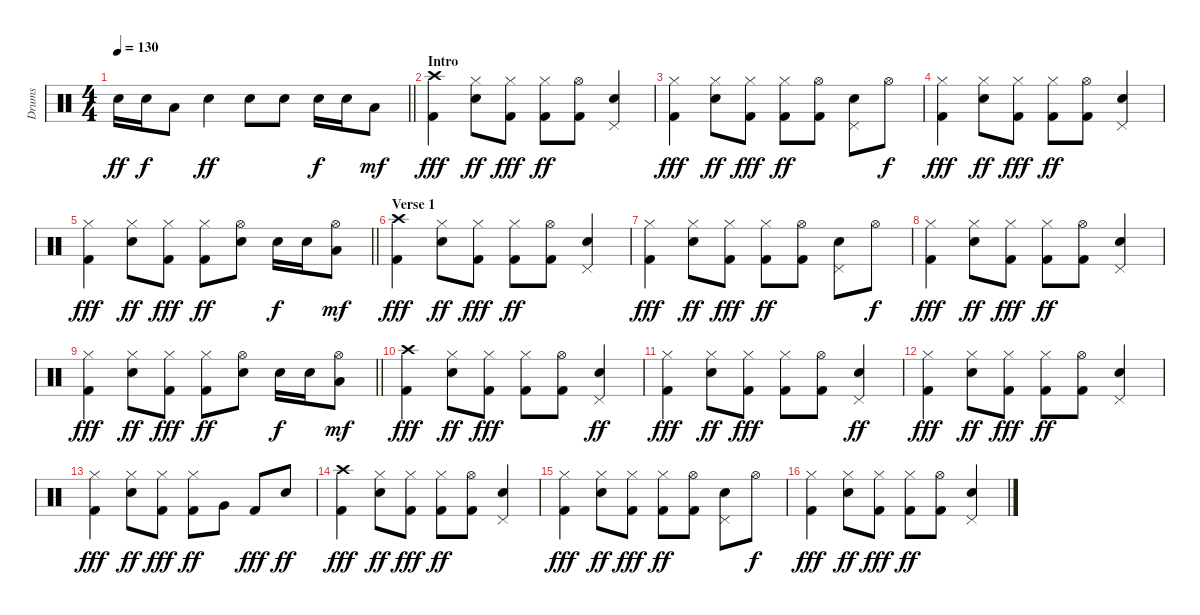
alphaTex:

\track ("Drums" "Drums") {instrument percussion}
\staff {score}
\articulation defaults
\ts (4 4)
\tempo 130
\clef neutral
\barLineRight lightlight
\ks c "Snare (hit) 2".16{dy ff} "Snare (hit) 2".16{dy f} "Low Tom (hit)".8 "Snare (hit) 2".4{dy ff} "Snare (hit) 2".8 "Snare (hit) 2".8 "Snare (hit) 2".16{dy f} "Snare (hit) 2".16 "Low Tom (hit)".8{dy mf}
|
\section ("" "Intro")
("Crash high (hit)" "Kick (hit) 2").4{dy fff} ("Hi-Hat (closed)" "Snare (hit) 2").8{dy ff} ("Hi-Hat (closed)" "Kick (hit) 2").8{dy fff} ("Hi-Hat (closed)" "Kick (hit) 2").8{dy ff} ("Hi-Hat (open)" "Kick (hit) 2").8 ("Pedal Hi-Hat (hit)" "Snare (hit) 2").4 |
("Hi-Hat (closed)" "Kick (hit) 2").4{dy fff} ("Hi-Hat (closed)" "Snare (hit) 2").8{dy ff} ("Hi-Hat (closed)" "Kick (hit) 2").8{dy fff} ("Hi-Hat (closed)" "Kick (hit) 2").8{dy ff} ("Hi-Hat (open)" "Kick (hit) 2").8 ("Pedal Hi-Hat (hit)" "Snare (hit) 2").8 "Hi-Hat (open)".8{dy f} |
("Hi-Hat (closed)" "Kick (hit) 2").4{dy fff} ("Hi-Hat (closed)" "Snare (hit) 2").8{dy ff} ("Hi-Hat (closed)" "Kick (hit) 2").8{dy fff} ("Hi-Hat (closed)" "Kick (hit) 2").8{dy ff} ("Hi-Hat (open)" "Kick (hit) 2").8 ("Pedal Hi-Hat (hit)" "Snare (hit) 2").4 |
\barLineRight lightlight
("Hi-Hat (closed)" "Kick (hit) 2").4{dy fff} ("Hi-Hat (closed)" "Snare (hit) 2").8{dy ff} ("Hi-Hat (closed)" "Kick (hit) 2").8{dy fff} ("Hi-Hat (closed)" "Kick (hit) 2").8{dy ff} ("Hi-Hat (open)" "Snare (hit) 2").8 "Snare (hit) 2".16{dy f} "Snare (hit) 2".16 ("Hi-Hat (open)" "Low Tom (hit)").8{dy mf} |
\section ("" "Verse 1")
("Crash high (hit)" "Kick (hit) 2").4{dy fff} ("Hi-Hat (closed)" "Snare (hit) 2").8{dy ff} ("Hi-Hat (closed)" "Kick (hit) 2").8{dy fff} ("Hi-Hat (closed)" "Kick (hit) 2").8{dy ff} ("Hi-Hat (open)" "Kick (hit) 2").8 ("Pedal Hi-Hat (hit)" "Snare (hit) 2").4 |
("Hi-Hat (closed)" "Kick (hit) 2").4{dy fff} ("Hi-Hat (closed)" "Snare (hit) 2").8{dy ff} ("Hi-Hat (closed)" "Kick (hit) 2").8{dy fff} ("Hi-Hat (closed)" "Kick (hit) 2").8{dy ff} ("Hi-Hat (open)" "Kick (hit) 2").8 ("Pedal Hi-Hat (hit)" "Snare (hit) 2").8 "Hi-Hat (open)".8{dy f} |
("Hi-Hat (closed)" "Kick (hit) 2").4{dy fff} ("Hi-Hat (closed)" "Snare (hit) 2").8{dy ff} ("Hi-Hat (closed)" "Kick (hit) 2").8{dy fff} ("Hi-Hat (closed)" "Kick (hit) 2").8{dy ff} ("Hi-Hat (open)" "Kick (hit) 2").8 ("Pedal Hi-Hat (hit)" "Snare (hit) 2").4 |
\barLineRight lightlight
("Hi-Hat (closed)" "Kick (hit) 2").4{dy fff} ("Hi-Hat (closed)" "Snare (hit) 2").8{dy ff} ("Hi-Hat (closed)" "Kick (hit) 2").8{dy fff} ("Hi-Hat (closed)" "Kick (hit) 2").8{dy ff} ("Hi-Hat (open)" "Snare (hit) 2").8 "Snare (hit) 2".16{dy f} "Snare (hit) 2".16 ("Hi-Hat (open)" "Low Tom (hit)").8{dy mf} |
("Crash high (hit)" "Kick (hit) 2").4{dy fff} ("Hi-Hat (closed)" "Snare (hit) 2").8{dy ff} ("Hi-Hat (closed)" "Kick (hit) 2").8{dy fff} ("Hi-Hat (closed)" "Kick (hit) 2").8 ("Hi-Hat (open)" "Kick (hit) 2").8 ("Pedal Hi-Hat (hit)" "Snare (hit) 2").4{dy ff} |
("Hi-Hat (closed)" "Kick (hit) 2").4{dy fff} ("Hi-Hat (closed)" "Snare (hit) 2").8{dy ff} ("Hi-Hat (closed)" "Kick (hit) 2").8{dy fff} ("Hi-Hat (closed)" "Kick (hit) 2").8 ("Hi-Hat (open)" "Kick (hit) 2").8 ("Pedal Hi-Hat (hit)" "Snare (hit) 2").4{dy ff} |
("Hi-Hat (closed)" "Kick (hit) 2").4{dy fff} ("Hi-Hat (closed)" "Snare (hit) 2").8{dy ff} ("Hi-Hat (closed)" "Kick (hit) 2").8{dy fff} ("Hi-Hat (closed)" "Kick (hit) 2").8{dy ff} ("Hi-Hat (open)" "Kick (hit) 2").8 ("Pedal Hi-Hat (hit)" "Snare (hit) 2").4 |
("Hi-Hat (closed)" "Kick (hit) 2").4{dy fff} ("Hi-Hat (closed)" "Snare (hit) 2").8{dy ff} ("Hi-Hat (closed)" "Kick (hit) 2").8{dy fff} ("Hi-Hat (closed)" "Kick (hit) 2").8{dy ff} "Very Low Tom (hit)".8 "Kick (hit) 2".8{dy fff} "Snare (hit) 2".8{dy ff} |
("Crash high (hit)" "Kick (hit) 2").4{dy fff} ("Hi-Hat (closed)" "Snare (hit) 2").8{dy ff} ("Hi-Hat (closed)" "Kick (hit) 2").8{dy fff} ("Hi-Hat (closed)" "Kick (hit) 2").8{dy ff} ("Hi-Hat (open)" "Kick (hit) 2").8 ("Pedal Hi-Hat (hit)" "Snare (hit) 2").4 |
("Hi-Hat (closed)" "Kick (hit) 2").4{dy fff} ("Hi-Hat (closed)" "Snare (hit) 2").8{dy ff} ("Hi-Hat (closed)" "Kick (hit) 2").8{dy fff} ("Hi-Hat (closed)" "Kick (hit) 2").8{dy ff} ("Hi-Hat (open)" "Kick (hit) 2").8 ("Pedal Hi-Hat (hit)" "Snare (hit) 2").8 "Hi-Hat (open)".8{dy f} |
("Hi-Hat (closed)" "Kick (hit) 2").4{dy fff} ("Hi-Hat (closed)" "Snare (hit) 2").8{dy ff} ("Hi-Hat (closed)" "Kick (hit) 2").8{dy fff} ("Hi-Hat (closed)" "Kick (hit) 2").8{dy ff} ("Hi-Hat (open)" "Kick (hit) 2").8 ("Pedal Hi-Hat (hit)" "Snare (hit) 2").4
